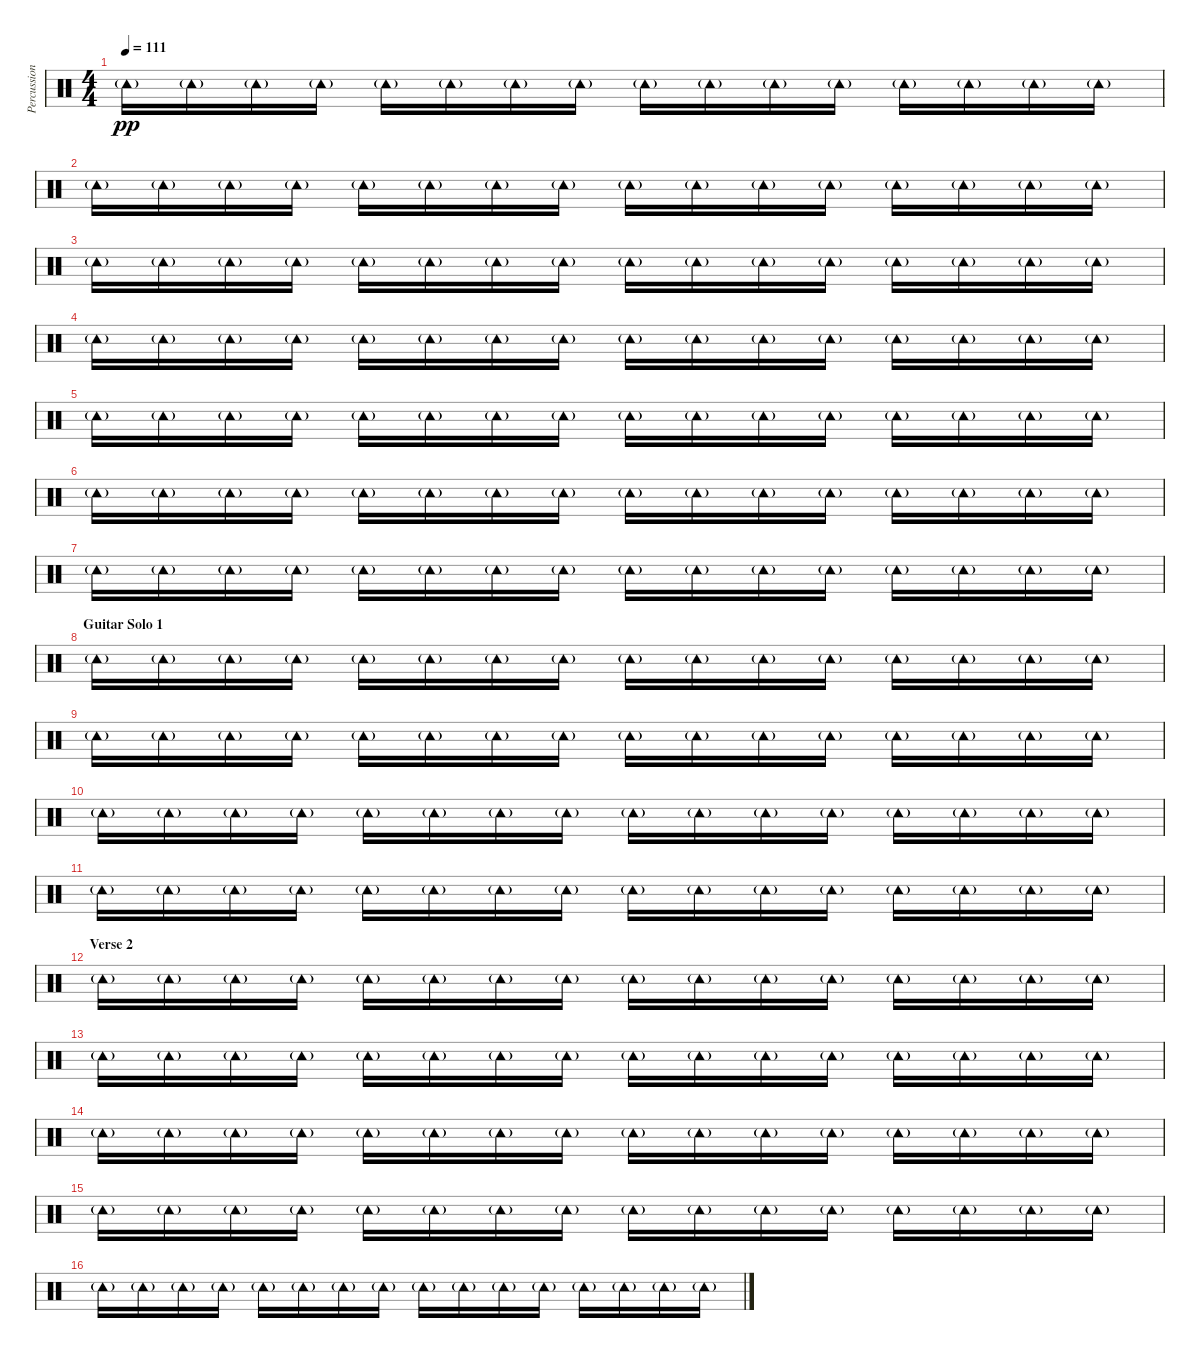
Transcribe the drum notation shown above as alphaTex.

\track ("Percussion" "Percussion") {instrument percussion}
\staff {score}
\articulation defaults
\ts (4 4)
\tempo 111
\clef neutral
\ks c "Tambourine (hit)"{g}.16{dy pp} "Tambourine (hit)"{g}.16 "Tambourine (hit)"{g}.16 "Tambourine (hit)"{g}.16 "Tambourine (hit)"{g}.16 "Tambourine (hit)"{g}.16 "Tambourine (hit)"{g}.16 "Tambourine (hit)"{g}.16 "Tambourine (hit)"{g}.16 "Tambourine (hit)"{g}.16 "Tambourine (hit)"{g}.16 "Tambourine (hit)"{g}.16 "Tambourine (hit)"{g}.16 "Tambourine (hit)"{g}.16 "Tambourine (hit)"{g}.16 "Tambourine (hit)"{g}.16
|
"Tambourine (hit)"{g}.16 "Tambourine (hit)"{g}.16 "Tambourine (hit)"{g}.16 "Tambourine (hit)"{g}.16 "Tambourine (hit)"{g}.16 "Tambourine (hit)"{g}.16 "Tambourine (hit)"{g}.16 "Tambourine (hit)"{g}.16 "Tambourine (hit)"{g}.16 "Tambourine (hit)"{g}.16 "Tambourine (hit)"{g}.16 "Tambourine (hit)"{g}.16 "Tambourine (hit)"{g}.16 "Tambourine (hit)"{g}.16 "Tambourine (hit)"{g}.16 "Tambourine (hit)"{g}.16 |
"Tambourine (hit)"{g}.16 "Tambourine (hit)"{g}.16 "Tambourine (hit)"{g}.16 "Tambourine (hit)"{g}.16 "Tambourine (hit)"{g}.16 "Tambourine (hit)"{g}.16 "Tambourine (hit)"{g}.16 "Tambourine (hit)"{g}.16 "Tambourine (hit)"{g}.16 "Tambourine (hit)"{g}.16 "Tambourine (hit)"{g}.16 "Tambourine (hit)"{g}.16 "Tambourine (hit)"{g}.16 "Tambourine (hit)"{g}.16 "Tambourine (hit)"{g}.16 "Tambourine (hit)"{g}.16 |
"Tambourine (hit)"{g}.16 "Tambourine (hit)"{g}.16 "Tambourine (hit)"{g}.16 "Tambourine (hit)"{g}.16 "Tambourine (hit)"{g}.16 "Tambourine (hit)"{g}.16 "Tambourine (hit)"{g}.16 "Tambourine (hit)"{g}.16 "Tambourine (hit)"{g}.16 "Tambourine (hit)"{g}.16 "Tambourine (hit)"{g}.16 "Tambourine (hit)"{g}.16 "Tambourine (hit)"{g}.16 "Tambourine (hit)"{g}.16 "Tambourine (hit)"{g}.16 "Tambourine (hit)"{g}.16 |
"Tambourine (hit)"{g}.16 "Tambourine (hit)"{g}.16 "Tambourine (hit)"{g}.16 "Tambourine (hit)"{g}.16 "Tambourine (hit)"{g}.16 "Tambourine (hit)"{g}.16 "Tambourine (hit)"{g}.16 "Tambourine (hit)"{g}.16 "Tambourine (hit)"{g}.16 "Tambourine (hit)"{g}.16 "Tambourine (hit)"{g}.16 "Tambourine (hit)"{g}.16 "Tambourine (hit)"{g}.16 "Tambourine (hit)"{g}.16 "Tambourine (hit)"{g}.16 "Tambourine (hit)"{g}.16 |
"Tambourine (hit)"{g}.16 "Tambourine (hit)"{g}.16 "Tambourine (hit)"{g}.16 "Tambourine (hit)"{g}.16 "Tambourine (hit)"{g}.16 "Tambourine (hit)"{g}.16 "Tambourine (hit)"{g}.16 "Tambourine (hit)"{g}.16 "Tambourine (hit)"{g}.16 "Tambourine (hit)"{g}.16 "Tambourine (hit)"{g}.16 "Tambourine (hit)"{g}.16 "Tambourine (hit)"{g}.16 "Tambourine (hit)"{g}.16 "Tambourine (hit)"{g}.16 "Tambourine (hit)"{g}.16 |
"Tambourine (hit)"{g}.16 "Tambourine (hit)"{g}.16 "Tambourine (hit)"{g}.16 "Tambourine (hit)"{g}.16 "Tambourine (hit)"{g}.16 "Tambourine (hit)"{g}.16 "Tambourine (hit)"{g}.16 "Tambourine (hit)"{g}.16 "Tambourine (hit)"{g}.16 "Tambourine (hit)"{g}.16 "Tambourine (hit)"{g}.16 "Tambourine (hit)"{g}.16 "Tambourine (hit)"{g}.16 "Tambourine (hit)"{g}.16 "Tambourine (hit)"{g}.16 "Tambourine (hit)"{g}.16 |
\section ("" "Guitar Solo 1")
"Tambourine (hit)"{g}.16 "Tambourine (hit)"{g}.16 "Tambourine (hit)"{g}.16 "Tambourine (hit)"{g}.16 "Tambourine (hit)"{g}.16 "Tambourine (hit)"{g}.16 "Tambourine (hit)"{g}.16 "Tambourine (hit)"{g}.16 "Tambourine (hit)"{g}.16 "Tambourine (hit)"{g}.16 "Tambourine (hit)"{g}.16 "Tambourine (hit)"{g}.16 "Tambourine (hit)"{g}.16 "Tambourine (hit)"{g}.16 "Tambourine (hit)"{g}.16 "Tambourine (hit)"{g}.16 |
"Tambourine (hit)"{g}.16 "Tambourine (hit)"{g}.16 "Tambourine (hit)"{g}.16 "Tambourine (hit)"{g}.16 "Tambourine (hit)"{g}.16 "Tambourine (hit)"{g}.16 "Tambourine (hit)"{g}.16 "Tambourine (hit)"{g}.16 "Tambourine (hit)"{g}.16 "Tambourine (hit)"{g}.16 "Tambourine (hit)"{g}.16 "Tambourine (hit)"{g}.16 "Tambourine (hit)"{g}.16 "Tambourine (hit)"{g}.16 "Tambourine (hit)"{g}.16 "Tambourine (hit)"{g}.16 |
"Tambourine (hit)"{g}.16 "Tambourine (hit)"{g}.16 "Tambourine (hit)"{g}.16 "Tambourine (hit)"{g}.16 "Tambourine (hit)"{g}.16 "Tambourine (hit)"{g}.16 "Tambourine (hit)"{g}.16 "Tambourine (hit)"{g}.16 "Tambourine (hit)"{g}.16 "Tambourine (hit)"{g}.16 "Tambourine (hit)"{g}.16 "Tambourine (hit)"{g}.16 "Tambourine (hit)"{g}.16 "Tambourine (hit)"{g}.16 "Tambourine (hit)"{g}.16 "Tambourine (hit)"{g}.16 |
"Tambourine (hit)"{g}.16 "Tambourine (hit)"{g}.16 "Tambourine (hit)"{g}.16 "Tambourine (hit)"{g}.16 "Tambourine (hit)"{g}.16 "Tambourine (hit)"{g}.16 "Tambourine (hit)"{g}.16 "Tambourine (hit)"{g}.16 "Tambourine (hit)"{g}.16 "Tambourine (hit)"{g}.16 "Tambourine (hit)"{g}.16 "Tambourine (hit)"{g}.16 "Tambourine (hit)"{g}.16 "Tambourine (hit)"{g}.16 "Tambourine (hit)"{g}.16 "Tambourine (hit)"{g}.16 |
\section ("" "Verse 2")
"Tambourine (hit)"{g}.16 "Tambourine (hit)"{g}.16 "Tambourine (hit)"{g}.16 "Tambourine (hit)"{g}.16 "Tambourine (hit)"{g}.16 "Tambourine (hit)"{g}.16 "Tambourine (hit)"{g}.16 "Tambourine (hit)"{g}.16 "Tambourine (hit)"{g}.16 "Tambourine (hit)"{g}.16 "Tambourine (hit)"{g}.16 "Tambourine (hit)"{g}.16 "Tambourine (hit)"{g}.16 "Tambourine (hit)"{g}.16 "Tambourine (hit)"{g}.16 "Tambourine (hit)"{g}.16 |
"Tambourine (hit)"{g}.16 "Tambourine (hit)"{g}.16 "Tambourine (hit)"{g}.16 "Tambourine (hit)"{g}.16 "Tambourine (hit)"{g}.16 "Tambourine (hit)"{g}.16 "Tambourine (hit)"{g}.16 "Tambourine (hit)"{g}.16 "Tambourine (hit)"{g}.16 "Tambourine (hit)"{g}.16 "Tambourine (hit)"{g}.16 "Tambourine (hit)"{g}.16 "Tambourine (hit)"{g}.16 "Tambourine (hit)"{g}.16 "Tambourine (hit)"{g}.16 "Tambourine (hit)"{g}.16 |
"Tambourine (hit)"{g}.16 "Tambourine (hit)"{g}.16 "Tambourine (hit)"{g}.16 "Tambourine (hit)"{g}.16 "Tambourine (hit)"{g}.16 "Tambourine (hit)"{g}.16 "Tambourine (hit)"{g}.16 "Tambourine (hit)"{g}.16 "Tambourine (hit)"{g}.16 "Tambourine (hit)"{g}.16 "Tambourine (hit)"{g}.16 "Tambourine (hit)"{g}.16 "Tambourine (hit)"{g}.16 "Tambourine (hit)"{g}.16 "Tambourine (hit)"{g}.16 "Tambourine (hit)"{g}.16 |
"Tambourine (hit)"{g}.16 "Tambourine (hit)"{g}.16 "Tambourine (hit)"{g}.16 "Tambourine (hit)"{g}.16 "Tambourine (hit)"{g}.16 "Tambourine (hit)"{g}.16 "Tambourine (hit)"{g}.16 "Tambourine (hit)"{g}.16 "Tambourine (hit)"{g}.16 "Tambourine (hit)"{g}.16 "Tambourine (hit)"{g}.16 "Tambourine (hit)"{g}.16 "Tambourine (hit)"{g}.16 "Tambourine (hit)"{g}.16 "Tambourine (hit)"{g}.16 "Tambourine (hit)"{g}.16 |
"Tambourine (hit)"{g}.16 "Tambourine (hit)"{g}.16 "Tambourine (hit)"{g}.16 "Tambourine (hit)"{g}.16 "Tambourine (hit)"{g}.16 "Tambourine (hit)"{g}.16 "Tambourine (hit)"{g}.16 "Tambourine (hit)"{g}.16 "Tambourine (hit)"{g}.16 "Tambourine (hit)"{g}.16 "Tambourine (hit)"{g}.16 "Tambourine (hit)"{g}.16 "Tambourine (hit)"{g}.16 "Tambourine (hit)"{g}.16 "Tambourine (hit)"{g}.16 "Tambourine (hit)"{g}.16
